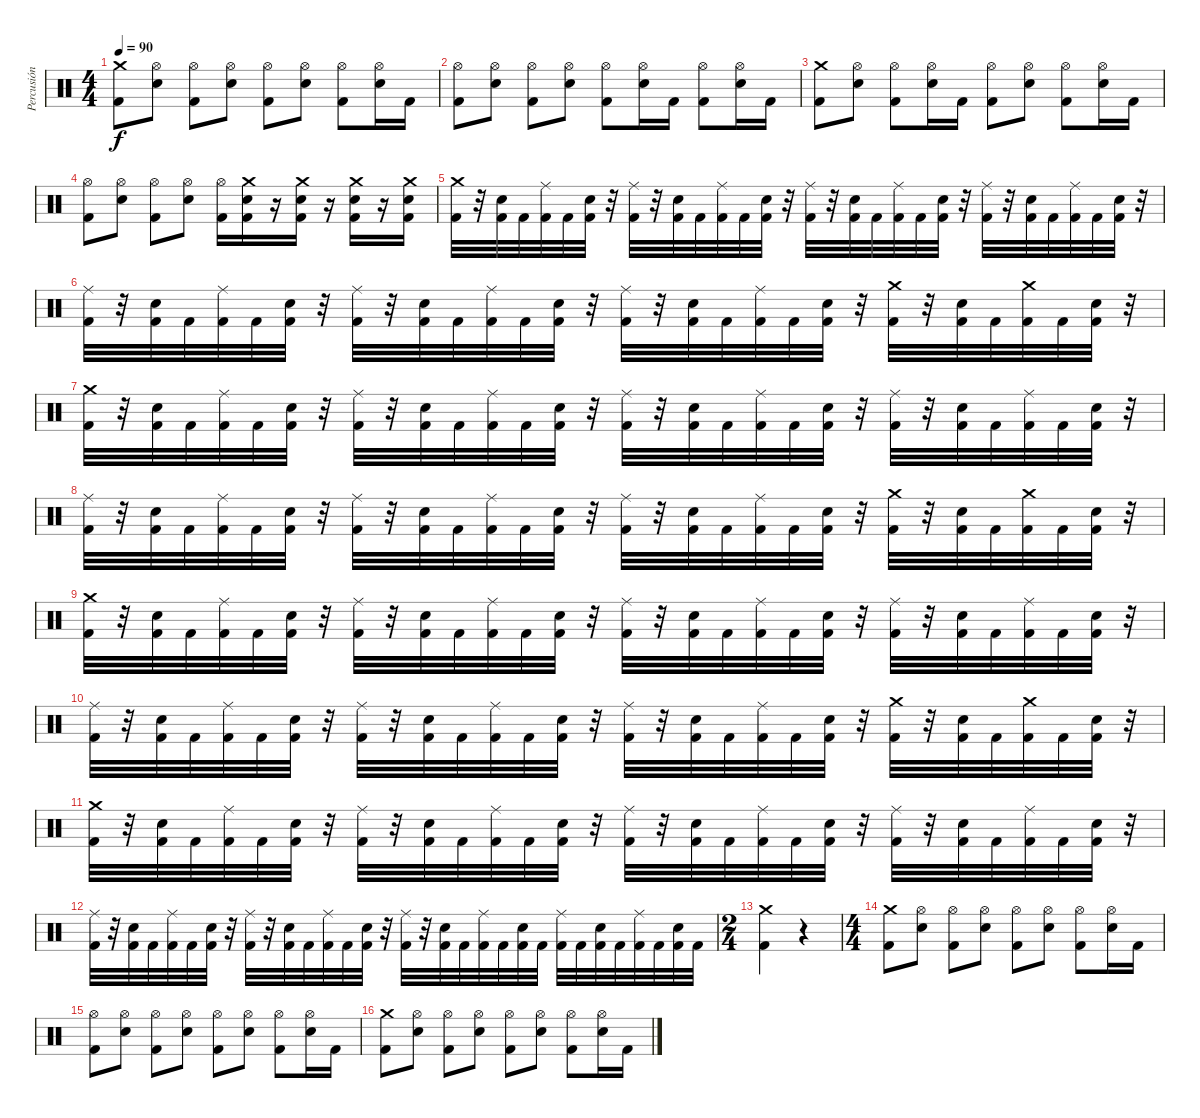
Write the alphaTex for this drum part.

\track ("Percusión" "Percusión") {instrument percussion}
\staff {score}
\articulation defaults
\ts (4 4)
\tempo 90
\clef neutral
\ks c
("Crash medium (hit)" "Kick (hit) 2").8{dy f} ("Hi-Hat (open)" "Snare (hit) 2").8 ("Hi-Hat (open)" "Kick (hit) 2").8 ("Hi-Hat (open)" "Snare (hit) 2").8 ("Hi-Hat (open)" "Kick (hit) 2").8 ("Hi-Hat (open)" "Snare (hit) 2").8 ("Hi-Hat (open)" "Kick (hit) 2").8 ("Hi-Hat (open)" "Snare (hit) 2").16 "Kick (hit) 2".16 |
("Hi-Hat (open)" "Kick (hit) 2").8 ("Hi-Hat (open)" "Snare (hit) 2").8 ("Hi-Hat (open)" "Kick (hit) 2").8 ("Hi-Hat (open)" "Snare (hit) 2").8 ("Hi-Hat (open)" "Kick (hit) 2").8 ("Hi-Hat (open)" "Snare (hit) 2").16 "Kick (hit) 2".16 ("Hi-Hat (open)" "Kick (hit) 2").8 ("Hi-Hat (open)" "Snare (hit) 2").16 "Kick (hit) 2".16 |
("Crash medium (hit)" "Kick (hit) 2").8 ("Hi-Hat (open)" "Snare (hit) 2").8 ("Hi-Hat (open)" "Kick (hit) 2").8 ("Hi-Hat (open)" "Snare (hit) 2").16 "Kick (hit) 2".16 ("Hi-Hat (open)" "Kick (hit) 2").8 ("Hi-Hat (open)" "Snare (hit) 2").8 ("Hi-Hat (open)" "Kick (hit) 2").8 ("Hi-Hat (open)" "Snare (hit) 2").16 "Kick (hit) 2".16 |
("Hi-Hat (open)" "Kick (hit) 2").8 ("Hi-Hat (open)" "Snare (hit) 2").8 ("Hi-Hat (open)" "Kick (hit) 2").8 ("Hi-Hat (open)" "Snare (hit) 2").8 ("Hi-Hat (open)" "Kick (hit) 2").16 ("Crash medium (hit)" "Snare (hit) 2" "Kick (hit) 2").16 r.16 ("Crash medium (hit)" "Snare (hit) 2" "Kick (hit) 2").16 r.16 ("Crash medium (hit)" "Snare (hit) 2" "Kick (hit) 2").16 r.16 ("Crash medium (hit)" "Snare (hit) 2" "Kick (hit) 2").16 |
("Crash medium (hit)" "Kick (hit) 2").32 r.32 ("Snare (hit) 2" "Kick (hit) 2").32 "Kick (hit) 2".32 ("Ride (middle)" "Kick (hit) 2").32 "Kick (hit) 2".32 ("Snare (hit) 2" "Kick (hit) 2").32 r.32 ("Ride (middle)" "Kick (hit) 2").32 r.32 ("Snare (hit) 2" "Kick (hit) 2").32 "Kick (hit) 2".32 ("Ride (middle)" "Kick (hit) 2").32 "Kick (hit) 2".32 ("Snare (hit) 2" "Kick (hit) 2").32 r.32 ("Ride (middle)" "Kick (hit) 2").32 r.32 ("Snare (hit) 2" "Kick (hit) 2").32 "Kick (hit) 2".32 ("Ride (middle)" "Kick (hit) 2").32 "Kick (hit) 2".32 ("Snare (hit) 2" "Kick (hit) 2").32 r.32 ("Ride (middle)" "Kick (hit) 2").32 r.32 ("Snare (hit) 2" "Kick (hit) 2").32 "Kick (hit) 2".32 ("Ride (middle)" "Kick (hit) 2").32 "Kick (hit) 2".32 ("Snare (hit) 2" "Kick (hit) 2").32 r.32 |
("Ride (middle)" "Kick (hit) 2").32 r.32 ("Snare (hit) 2" "Kick (hit) 2").32 "Kick (hit) 2".32 ("Ride (middle)" "Kick (hit) 2").32 "Kick (hit) 2".32 ("Snare (hit) 2" "Kick (hit) 2").32 r.32 ("Ride (middle)" "Kick (hit) 2").32 r.32 ("Snare (hit) 2" "Kick (hit) 2").32 "Kick (hit) 2".32 ("Ride (middle)" "Kick (hit) 2").32 "Kick (hit) 2".32 ("Snare (hit) 2" "Kick (hit) 2").32 r.32 ("Ride (middle)" "Kick (hit) 2").32 r.32 ("Snare (hit) 2" "Kick (hit) 2").32 "Kick (hit) 2".32 ("Ride (middle)" "Kick (hit) 2").32 "Kick (hit) 2".32 ("Snare (hit) 2" "Kick (hit) 2").32 r.32 ("Crash medium (hit)" "Kick (hit) 2").32 r.32 ("Snare (hit) 2" "Kick (hit) 2").32 "Kick (hit) 2".32 ("Crash medium (hit)" "Kick (hit) 2").32 "Kick (hit) 2".32 ("Snare (hit) 2" "Kick (hit) 2").32 r.32 |
("Crash medium (hit)" "Kick (hit) 2").32 r.32 ("Snare (hit) 2" "Kick (hit) 2").32 "Kick (hit) 2".32 ("Ride (middle)" "Kick (hit) 2").32 "Kick (hit) 2".32 ("Snare (hit) 2" "Kick (hit) 2").32 r.32 ("Ride (middle)" "Kick (hit) 2").32 r.32 ("Snare (hit) 2" "Kick (hit) 2").32 "Kick (hit) 2".32 ("Ride (middle)" "Kick (hit) 2").32 "Kick (hit) 2".32 ("Snare (hit) 2" "Kick (hit) 2").32 r.32 ("Ride (middle)" "Kick (hit) 2").32 r.32 ("Snare (hit) 2" "Kick (hit) 2").32 "Kick (hit) 2".32 ("Ride (middle)" "Kick (hit) 2").32 "Kick (hit) 2".32 ("Snare (hit) 2" "Kick (hit) 2").32 r.32 ("Ride (middle)" "Kick (hit) 2").32 r.32 ("Snare (hit) 2" "Kick (hit) 2").32 "Kick (hit) 2".32 ("Ride (middle)" "Kick (hit) 2").32 "Kick (hit) 2".32 ("Snare (hit) 2" "Kick (hit) 2").32 r.32 |
("Ride (middle)" "Kick (hit) 2").32 r.32 ("Snare (hit) 2" "Kick (hit) 2").32 "Kick (hit) 2".32 ("Ride (middle)" "Kick (hit) 2").32 "Kick (hit) 2".32 ("Snare (hit) 2" "Kick (hit) 2").32 r.32 ("Ride (middle)" "Kick (hit) 2").32 r.32 ("Snare (hit) 2" "Kick (hit) 2").32 "Kick (hit) 2".32 ("Ride (middle)" "Kick (hit) 2").32 "Kick (hit) 2".32 ("Snare (hit) 2" "Kick (hit) 2").32 r.32 ("Ride (middle)" "Kick (hit) 2").32 r.32 ("Snare (hit) 2" "Kick (hit) 2").32 "Kick (hit) 2".32 ("Ride (middle)" "Kick (hit) 2").32 "Kick (hit) 2".32 ("Snare (hit) 2" "Kick (hit) 2").32 r.32 ("Crash medium (hit)" "Kick (hit) 2").32 r.32 ("Snare (hit) 2" "Kick (hit) 2").32 "Kick (hit) 2".32 ("Crash medium (hit)" "Kick (hit) 2").32 "Kick (hit) 2".32 ("Snare (hit) 2" "Kick (hit) 2").32 r.32 |
("Crash medium (hit)" "Kick (hit) 2").32 r.32 ("Snare (hit) 2" "Kick (hit) 2").32 "Kick (hit) 2".32 ("Ride (middle)" "Kick (hit) 2").32 "Kick (hit) 2".32 ("Snare (hit) 2" "Kick (hit) 2").32 r.32 ("Ride (middle)" "Kick (hit) 2").32 r.32 ("Snare (hit) 2" "Kick (hit) 2").32 "Kick (hit) 2".32 ("Ride (middle)" "Kick (hit) 2").32 "Kick (hit) 2".32 ("Snare (hit) 2" "Kick (hit) 2").32 r.32 ("Ride (middle)" "Kick (hit) 2").32 r.32 ("Snare (hit) 2" "Kick (hit) 2").32 "Kick (hit) 2".32 ("Ride (middle)" "Kick (hit) 2").32 "Kick (hit) 2".32 ("Snare (hit) 2" "Kick (hit) 2").32 r.32 ("Ride (middle)" "Kick (hit) 2").32 r.32 ("Snare (hit) 2" "Kick (hit) 2").32 "Kick (hit) 2".32 ("Ride (middle)" "Kick (hit) 2").32 "Kick (hit) 2".32 ("Snare (hit) 2" "Kick (hit) 2").32 r.32 |
("Ride (middle)" "Kick (hit) 2").32 r.32 ("Snare (hit) 2" "Kick (hit) 2").32 "Kick (hit) 2".32 ("Ride (middle)" "Kick (hit) 2").32 "Kick (hit) 2".32 ("Snare (hit) 2" "Kick (hit) 2").32 r.32 ("Ride (middle)" "Kick (hit) 2").32 r.32 ("Snare (hit) 2" "Kick (hit) 2").32 "Kick (hit) 2".32 ("Ride (middle)" "Kick (hit) 2").32 "Kick (hit) 2".32 ("Snare (hit) 2" "Kick (hit) 2").32 r.32 ("Ride (middle)" "Kick (hit) 2").32 r.32 ("Snare (hit) 2" "Kick (hit) 2").32 "Kick (hit) 2".32 ("Ride (middle)" "Kick (hit) 2").32 "Kick (hit) 2".32 ("Snare (hit) 2" "Kick (hit) 2").32 r.32 ("Crash medium (hit)" "Kick (hit) 2").32 r.32 ("Snare (hit) 2" "Kick (hit) 2").32 "Kick (hit) 2".32 ("Crash medium (hit)" "Kick (hit) 2").32 "Kick (hit) 2".32 ("Snare (hit) 2" "Kick (hit) 2").32 r.32 |
("Crash medium (hit)" "Kick (hit) 2").32 r.32 ("Snare (hit) 2" "Kick (hit) 2").32 "Kick (hit) 2".32 ("Ride (middle)" "Kick (hit) 2").32 "Kick (hit) 2".32 ("Snare (hit) 2" "Kick (hit) 2").32 r.32 ("Ride (middle)" "Kick (hit) 2").32 r.32 ("Snare (hit) 2" "Kick (hit) 2").32 "Kick (hit) 2".32 ("Ride (middle)" "Kick (hit) 2").32 "Kick (hit) 2".32 ("Snare (hit) 2" "Kick (hit) 2").32 r.32 ("Ride (middle)" "Kick (hit) 2").32 r.32 ("Snare (hit) 2" "Kick (hit) 2").32 "Kick (hit) 2".32 ("Ride (middle)" "Kick (hit) 2").32 "Kick (hit) 2".32 ("Snare (hit) 2" "Kick (hit) 2").32 r.32 ("Ride (middle)" "Kick (hit) 2").32 r.32 ("Snare (hit) 2" "Kick (hit) 2").32 "Kick (hit) 2".32 ("Ride (middle)" "Kick (hit) 2").32 "Kick (hit) 2".32 ("Snare (hit) 2" "Kick (hit) 2").32 r.32 |
("Ride (middle)" "Kick (hit) 2").32 r.32 ("Snare (hit) 2" "Kick (hit) 2").32 "Kick (hit) 2".32 ("Ride (middle)" "Kick (hit) 2").32 "Kick (hit) 2".32 ("Snare (hit) 2" "Kick (hit) 2").32 r.32 ("Ride (middle)" "Kick (hit) 2").32 r.32 ("Snare (hit) 2" "Kick (hit) 2").32 "Kick (hit) 2".32 ("Ride (middle)" "Kick (hit) 2").32 "Kick (hit) 2".32 ("Snare (hit) 2" "Kick (hit) 2").32 r.32 ("Ride (middle)" "Kick (hit) 2").32 r.32 ("Snare (hit) 2" "Kick (hit) 2").32 "Kick (hit) 2".32 ("Ride (middle)" "Kick (hit) 2").32 "Kick (hit) 2".32 ("Snare (hit) 2" "Kick (hit) 2").32 "Kick (hit) 2".32 ("Ride (middle)" "Kick (hit) 2").32 "Kick (hit) 2".32 ("Snare (hit) 2" "Kick (hit) 2").32 "Kick (hit) 2".32 ("Ride (middle)" "Kick (hit) 2").32 "Kick (hit) 2".32 ("Snare (hit) 2" "Kick (hit) 2").32 "Kick (hit) 2".32 |
\ts (2 4)
("Crash medium (hit)" "Kick (hit) 2").4 r.4 |
\ts (4 4)
("Crash medium (hit)" "Kick (hit) 2").8 ("Hi-Hat (open)" "Snare (hit) 2").8 ("Hi-Hat (open)" "Kick (hit) 2").8 ("Hi-Hat (open)" "Snare (hit) 2").8 ("Hi-Hat (open)" "Kick (hit) 2").8 ("Hi-Hat (open)" "Snare (hit) 2").8 ("Hi-Hat (open)" "Kick (hit) 2").8 ("Hi-Hat (open)" "Snare (hit) 2").16 "Kick (hit) 2".16 |
("Hi-Hat (open)" "Kick (hit) 2").8 ("Hi-Hat (open)" "Snare (hit) 2").8 ("Hi-Hat (open)" "Kick (hit) 2").8 ("Hi-Hat (open)" "Snare (hit) 2").8 ("Hi-Hat (open)" "Kick (hit) 2").8 ("Hi-Hat (open)" "Snare (hit) 2").8 ("Hi-Hat (open)" "Kick (hit) 2").8 ("Hi-Hat (open)" "Snare (hit) 2").16 "Kick (hit) 2".16 |
("Crash medium (hit)" "Kick (hit) 2").8 ("Hi-Hat (open)" "Snare (hit) 2").8 ("Hi-Hat (open)" "Kick (hit) 2").8 ("Hi-Hat (open)" "Snare (hit) 2").8 ("Hi-Hat (open)" "Kick (hit) 2").8 ("Hi-Hat (open)" "Snare (hit) 2").8 ("Hi-Hat (open)" "Kick (hit) 2").8 ("Hi-Hat (open)" "Snare (hit) 2").16 "Kick (hit) 2".16
